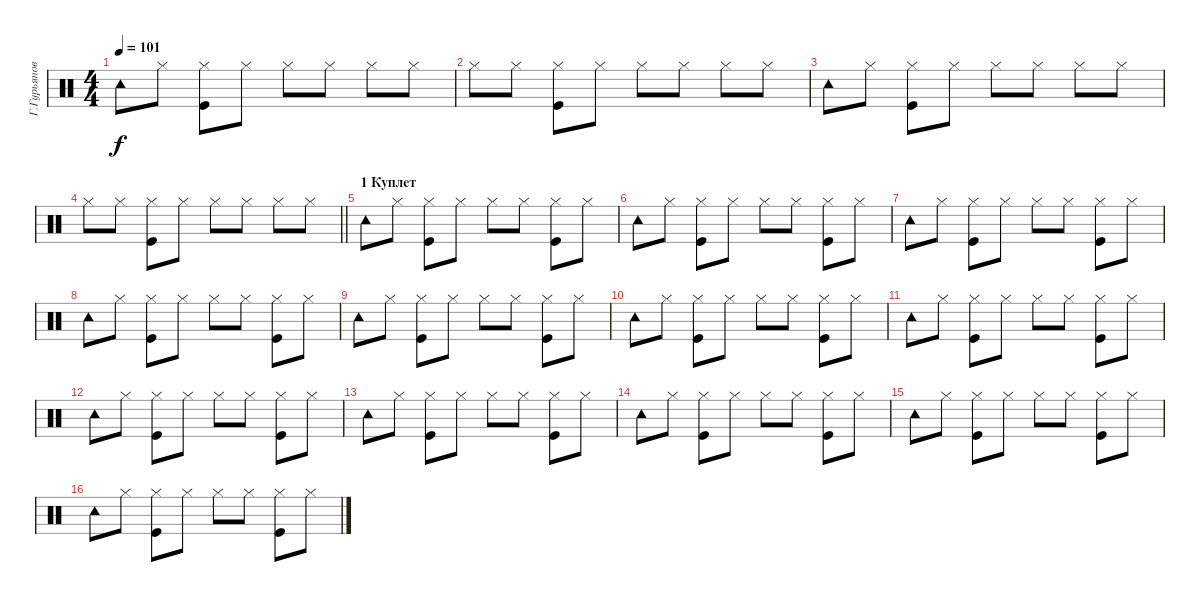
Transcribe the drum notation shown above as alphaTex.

\track ("Г.Гурьянов" "Г.Гурьянов") {instrument percussion}
\staff {score}
\articulation defaults
\ts (4 4)
\tempo 101
\clef neutral
\ks c "Tambourine (hit)".8{dy f} "Hi-Hat (closed)".8
("Hi-Hat (closed)" "Kick (hit)").8 "Hi-Hat (closed)".8 "Hi-Hat (closed)".8 "Hi-Hat (closed)".8 "Hi-Hat (closed)".8 "Hi-Hat (closed)".8 |
"Hi-Hat (closed)".8 "Hi-Hat (closed)".8 ("Hi-Hat (closed)" "Kick (hit)").8 "Hi-Hat (closed)".8 "Hi-Hat (closed)".8 "Hi-Hat (closed)".8 "Hi-Hat (closed)".8 "Hi-Hat (closed)".8 |
"Tambourine (hit)".8 "Hi-Hat (closed)".8 ("Hi-Hat (closed)" "Kick (hit)").8 "Hi-Hat (closed)".8 "Hi-Hat (closed)".8 "Hi-Hat (closed)".8 "Hi-Hat (closed)".8 "Hi-Hat (closed)".8 |
\barLineRight lightlight "Hi-Hat (closed)".8 "Hi-Hat (closed)".8
("Hi-Hat (closed)" "Kick (hit)").8 "Hi-Hat (closed)".8 "Hi-Hat (closed)".8 "Hi-Hat (closed)".8 "Hi-Hat (closed)".8 "Hi-Hat (closed)".8 |
\section ("" "1 Куплет")
"Tambourine (hit)".8 "Hi-Hat (closed)".8 ("Hi-Hat (closed)" "Kick (hit)").8 "Hi-Hat (closed)".8 "Hi-Hat (closed)".8 "Hi-Hat (closed)".8 ("Hi-Hat (closed)" "Kick (hit)").8 "Hi-Hat (closed)".8 |
"Tambourine (hit)".8 "Hi-Hat (closed)".8 ("Hi-Hat (closed)" "Kick (hit)").8 "Hi-Hat (closed)".8 "Hi-Hat (closed)".8 "Hi-Hat (closed)".8 ("Hi-Hat (closed)" "Kick (hit)").8 "Hi-Hat (closed)".8 |
"Tambourine (hit)".8 "Hi-Hat (closed)".8 ("Hi-Hat (closed)" "Kick (hit)").8 "Hi-Hat (closed)".8 "Hi-Hat (closed)".8 "Hi-Hat (closed)".8 ("Hi-Hat (closed)" "Kick (hit)").8 "Hi-Hat (closed)".8 |
"Tambourine (hit)".8 "Hi-Hat (closed)".8 ("Hi-Hat (closed)" "Kick (hit)").8 "Hi-Hat (closed)".8 "Hi-Hat (closed)".8 "Hi-Hat (closed)".8 ("Hi-Hat (closed)" "Kick (hit)").8 "Hi-Hat (closed)".8 |
"Tambourine (hit)".8 "Hi-Hat (closed)".8 ("Hi-Hat (closed)" "Kick (hit)").8 "Hi-Hat (closed)".8 "Hi-Hat (closed)".8 "Hi-Hat (closed)".8 ("Hi-Hat (closed)" "Kick (hit)").8 "Hi-Hat (closed)".8 |
"Tambourine (hit)".8 "Hi-Hat (closed)".8 ("Hi-Hat (closed)" "Kick (hit)").8 "Hi-Hat (closed)".8 "Hi-Hat (closed)".8 "Hi-Hat (closed)".8 ("Hi-Hat (closed)" "Kick (hit)").8 "Hi-Hat (closed)".8 |
"Tambourine (hit)".8 "Hi-Hat (closed)".8 ("Hi-Hat (closed)" "Kick (hit)").8 "Hi-Hat (closed)".8 "Hi-Hat (closed)".8 "Hi-Hat (closed)".8 ("Hi-Hat (closed)" "Kick (hit)").8 "Hi-Hat (closed)".8 |
"Tambourine (hit)".8 "Hi-Hat (closed)".8 ("Hi-Hat (closed)" "Kick (hit)").8 "Hi-Hat (closed)".8 "Hi-Hat (closed)".8 "Hi-Hat (closed)".8 ("Hi-Hat (closed)" "Kick (hit)").8 "Hi-Hat (closed)".8 |
"Tambourine (hit)".8 "Hi-Hat (closed)".8 ("Hi-Hat (closed)" "Kick (hit)").8 "Hi-Hat (closed)".8 "Hi-Hat (closed)".8 "Hi-Hat (closed)".8 ("Hi-Hat (closed)" "Kick (hit)").8 "Hi-Hat (closed)".8 |
"Tambourine (hit)".8 "Hi-Hat (closed)".8 ("Hi-Hat (closed)" "Kick (hit)").8 "Hi-Hat (closed)".8 "Hi-Hat (closed)".8 "Hi-Hat (closed)".8 ("Hi-Hat (closed)" "Kick (hit)").8 "Hi-Hat (closed)".8 |
"Tambourine (hit)".8 "Hi-Hat (closed)".8 ("Hi-Hat (closed)" "Kick (hit)").8 "Hi-Hat (closed)".8 "Hi-Hat (closed)".8 "Hi-Hat (closed)".8 ("Hi-Hat (closed)" "Kick (hit)").8 "Hi-Hat (closed)".8 |
"Tambourine (hit)".8 "Hi-Hat (closed)".8 ("Hi-Hat (closed)" "Kick (hit)").8 "Hi-Hat (closed)".8 "Hi-Hat (closed)".8 "Hi-Hat (closed)".8 ("Hi-Hat (closed)" "Kick (hit)").8 "Hi-Hat (closed)".8
